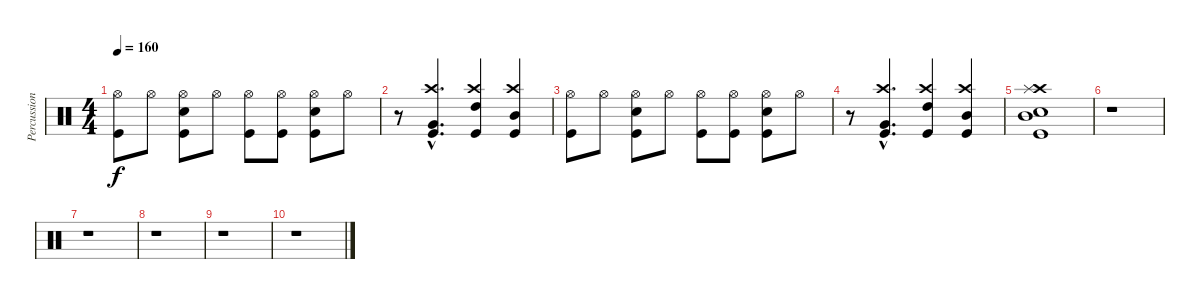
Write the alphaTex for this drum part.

\track ("Percussions" "Percussion") {instrument percussion}
\staff {score}
\articulation defaults
\ts (4 4)
\tempo 160
\clef neutral
\ks c
("Hi-Hat (open)" "Kick (hit)").8{dy f} "Hi-Hat (open)".8 ("Hi-Hat (open)" "Electric Snare (hit)" "Kick (hit)").8 "Hi-Hat (open)".8 ("Hi-Hat (open)" "Kick (hit)").8 ("Hi-Hat (open)" "Kick (hit)").8 ("Hi-Hat (open)" "Electric Snare (hit)" "Kick (hit)").8 "Hi-Hat (open)".8 |
r.8 ("Crash high (hit)"{hac} "Very Low Tom (hit)"{hac} "Kick (hit)"{hac}).4{d} ("Crash high (hit)" "High Tom (hit)" "Kick (hit)").4 ("Crash high (hit)" "Mid Tom (hit)" "Kick (hit)").4 |
("Hi-Hat (open)" "Kick (hit)").8 "Hi-Hat (open)".8 ("Hi-Hat (open)" "Electric Snare (hit)" "Kick (hit)").8 "Hi-Hat (open)".8 ("Hi-Hat (open)" "Kick (hit)").8 ("Hi-Hat (open)" "Kick (hit)").8 ("Hi-Hat (open)" "Electric Snare (hit)" "Kick (hit)").8 "Hi-Hat (open)".8 |
r.8 ("Crash high (hit)"{hac} "Very Low Tom (hit)"{hac} "Kick (hit)"{hac}).4{d} ("Crash high (hit)" "High Tom (hit)" "Kick (hit)").4 ("Crash high (hit)" "Mid Tom (hit)" "Kick (hit)").4 |
("Crash high (hit)" "Splash (hit)" "Mid Tom (hit)" "Electric Snare (hit)" "Kick (hit)").1 |
r.1 |
r.1 |
r.1 |
r.1 |
r.1
